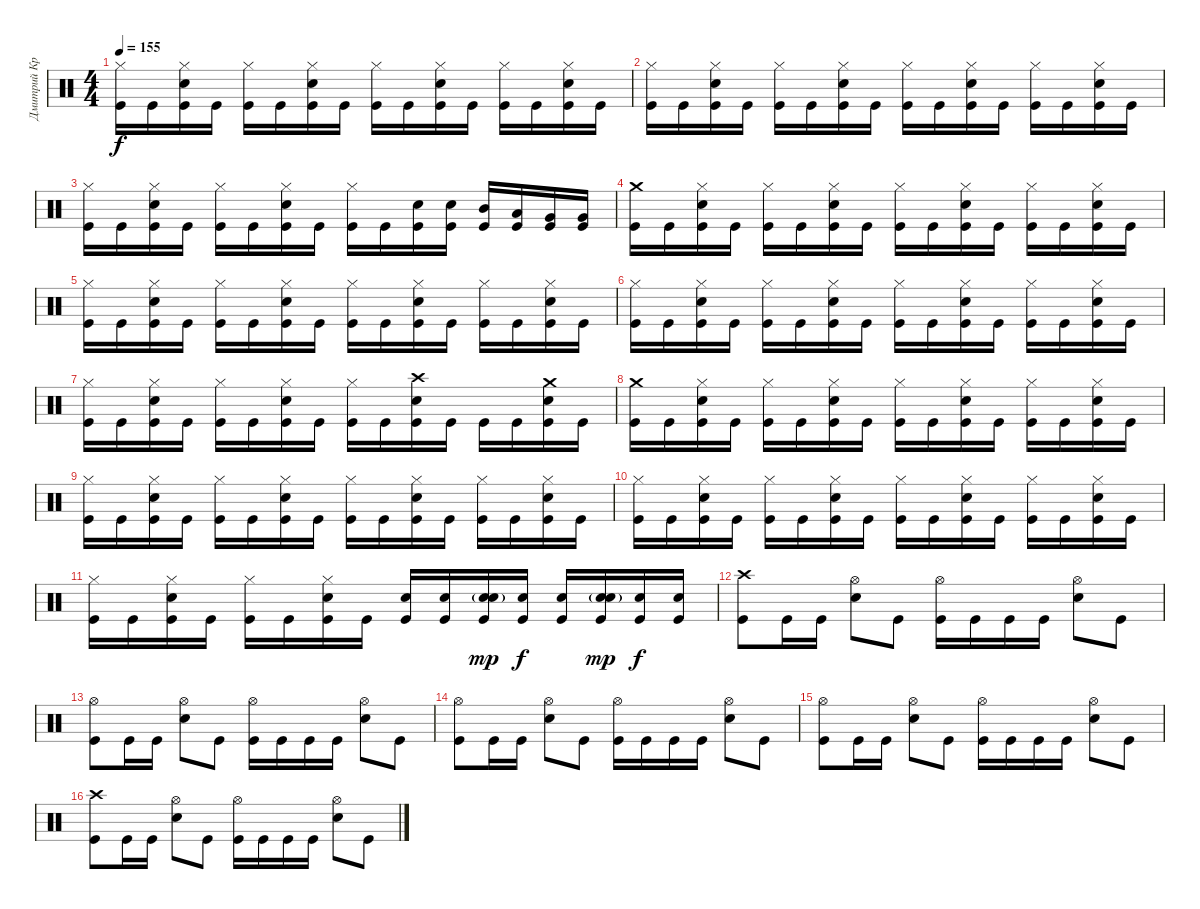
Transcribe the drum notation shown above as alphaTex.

\track ("Дмитрий Кривенков" "Дмитрий Кр") {instrument percussion}
\staff {score}
\articulation defaults
\ts (4 4)
\tempo 155
\clef neutral
\ks c
("Hi-Hat (closed)" "Kick (hit)").16{dy f} "Kick (hit)".16 ("Hi-Hat (closed)" "Snare (hit) 2" "Kick (hit)").16 "Kick (hit)".16 ("Hi-Hat (closed)" "Kick (hit)").16 "Kick (hit)".16 ("Hi-Hat (closed)" "Snare (hit) 2" "Kick (hit)").16 "Kick (hit)".16 ("Hi-Hat (closed)" "Kick (hit)").16 "Kick (hit)".16 ("Hi-Hat (closed)" "Snare (hit) 2" "Kick (hit)").16 "Kick (hit)".16 ("Hi-Hat (closed)" "Kick (hit)").16 "Kick (hit)".16 ("Hi-Hat (closed)" "Snare (hit) 2" "Kick (hit)").16 "Kick (hit)".16 |
("Hi-Hat (closed)" "Kick (hit)").16 "Kick (hit)".16 ("Hi-Hat (closed)" "Snare (hit) 2" "Kick (hit)").16 "Kick (hit)".16 ("Hi-Hat (closed)" "Kick (hit)").16 "Kick (hit)".16 ("Hi-Hat (closed)" "Snare (hit) 2" "Kick (hit)").16 "Kick (hit)".16 ("Hi-Hat (closed)" "Kick (hit)").16 "Kick (hit)".16 ("Hi-Hat (closed)" "Snare (hit) 2" "Kick (hit)").16 "Kick (hit)".16 ("Hi-Hat (closed)" "Kick (hit)").16 "Kick (hit)".16 ("Hi-Hat (closed)" "Snare (hit) 2" "Kick (hit)").16 "Kick (hit)".16 |
("Hi-Hat (closed)" "Kick (hit)").16 "Kick (hit)".16 ("Hi-Hat (closed)" "Snare (hit) 2" "Kick (hit)").16 "Kick (hit)".16 ("Hi-Hat (closed)" "Kick (hit)").16 "Kick (hit)".16 ("Hi-Hat (closed)" "Snare (hit) 2" "Kick (hit)").16 "Kick (hit)".16 ("Hi-Hat (closed)" "Kick (hit)").16 "Kick (hit)".16 ("Snare (hit) 2" "Kick (hit)").16 ("Snare (hit) 2" "Kick (hit)").16 ("Mid Tom (hit)" "Kick (hit)").16 ("Low Tom (hit)" "Kick (hit)").16 ("Very Low Tom (hit)" "Kick (hit)").16 ("Very Low Tom (hit)" "Kick (hit)").16 |
("Crash medium (hit)" "Kick (hit)").16 "Kick (hit)".16 ("Hi-Hat (closed)" "Snare (hit) 2" "Kick (hit)").16 "Kick (hit)".16 ("Hi-Hat (closed)" "Kick (hit)").16 "Kick (hit)".16 ("Hi-Hat (closed)" "Snare (hit) 2" "Kick (hit)").16 "Kick (hit)".16 ("Hi-Hat (closed)" "Kick (hit)").16 "Kick (hit)".16 ("Hi-Hat (closed)" "Snare (hit) 2" "Kick (hit)").16 "Kick (hit)".16 ("Hi-Hat (closed)" "Kick (hit)").16 "Kick (hit)".16 ("Hi-Hat (closed)" "Snare (hit) 2" "Kick (hit)").16 "Kick (hit)".16 |
("Hi-Hat (closed)" "Kick (hit)").16 "Kick (hit)".16 ("Hi-Hat (closed)" "Snare (hit) 2" "Kick (hit)").16 "Kick (hit)".16 ("Hi-Hat (closed)" "Kick (hit)").16 "Kick (hit)".16 ("Hi-Hat (closed)" "Snare (hit) 2" "Kick (hit)").16 "Kick (hit)".16 ("Hi-Hat (closed)" "Kick (hit)").16 "Kick (hit)".16 ("Hi-Hat (closed)" "Snare (hit) 2" "Kick (hit)").16 "Kick (hit)".16 ("Hi-Hat (closed)" "Kick (hit)").16 "Kick (hit)".16 ("Hi-Hat (closed)" "Snare (hit) 2" "Kick (hit)").16 "Kick (hit)".16 |
("Hi-Hat (closed)" "Kick (hit)").16 "Kick (hit)".16 ("Hi-Hat (closed)" "Snare (hit) 2" "Kick (hit)").16 "Kick (hit)".16 ("Hi-Hat (closed)" "Kick (hit)").16 "Kick (hit)".16 ("Hi-Hat (closed)" "Snare (hit) 2" "Kick (hit)").16 "Kick (hit)".16 ("Hi-Hat (closed)" "Kick (hit)").16 "Kick (hit)".16 ("Hi-Hat (closed)" "Snare (hit) 2" "Kick (hit)").16 "Kick (hit)".16 ("Hi-Hat (closed)" "Kick (hit)").16 "Kick (hit)".16 ("Hi-Hat (closed)" "Snare (hit) 2" "Kick (hit)").16 "Kick (hit)".16 |
("Hi-Hat (closed)" "Kick (hit)").16 "Kick (hit)".16 ("Hi-Hat (closed)" "Snare (hit) 2" "Kick (hit)").16 "Kick (hit)".16 ("Hi-Hat (closed)" "Kick (hit)").16 "Kick (hit)".16 ("Hi-Hat (closed)" "Snare (hit) 2" "Kick (hit)").16 "Kick (hit)".16 ("Hi-Hat (closed)" "Kick (hit)").16 "Kick (hit)".16 ("Crash high (hit)" "Snare (hit) 2" "Kick (hit)").16 "Kick (hit)".16 "Kick (hit)".16 "Kick (hit)".16 ("Crash medium (hit)" "Snare (hit) 2" "Kick (hit)").16 "Kick (hit)".16 |
("Crash medium (hit)" "Kick (hit)").16 "Kick (hit)".16 ("Snare (hit) 2" "Hi-Hat (closed)" "Kick (hit)").16 "Kick (hit)".16 ("Hi-Hat (closed)" "Kick (hit)").16 "Kick (hit)".16 ("Snare (hit) 2" "Hi-Hat (closed)" "Kick (hit)").16 "Kick (hit)".16 ("Hi-Hat (closed)" "Kick (hit)").16 "Kick (hit)".16 ("Snare (hit) 2" "Hi-Hat (closed)" "Kick (hit)").16 "Kick (hit)".16 ("Hi-Hat (closed)" "Kick (hit)").16 "Kick (hit)".16 ("Snare (hit) 2" "Hi-Hat (closed)" "Kick (hit)").16 "Kick (hit)".16 |
("Hi-Hat (closed)" "Kick (hit)").16 "Kick (hit)".16 ("Snare (hit) 2" "Hi-Hat (closed)" "Kick (hit)").16 "Kick (hit)".16 ("Hi-Hat (closed)" "Kick (hit)").16 "Kick (hit)".16 ("Snare (hit) 2" "Hi-Hat (closed)" "Kick (hit)").16 "Kick (hit)".16 ("Hi-Hat (closed)" "Kick (hit)").16 "Kick (hit)".16 ("Snare (hit) 2" "Hi-Hat (closed)" "Kick (hit)").16 "Kick (hit)".16 ("Hi-Hat (closed)" "Kick (hit)").16 "Kick (hit)".16 ("Snare (hit) 2" "Hi-Hat (closed)" "Kick (hit)").16 "Kick (hit)".16 |
("Hi-Hat (closed)" "Kick (hit)").16 "Kick (hit)".16 ("Hi-Hat (closed)" "Snare (hit) 2" "Kick (hit)").16 "Kick (hit)".16 ("Hi-Hat (closed)" "Kick (hit)").16 "Kick (hit)".16 ("Hi-Hat (closed)" "Snare (hit) 2" "Kick (hit)").16 "Kick (hit)".16 ("Hi-Hat (closed)" "Kick (hit)").16 "Kick (hit)".16 ("Hi-Hat (closed)" "Snare (hit) 2" "Kick (hit)").16 "Kick (hit)".16 ("Hi-Hat (closed)" "Kick (hit)").16 "Kick (hit)".16 ("Hi-Hat (closed)" "Snare (hit) 2" "Kick (hit)").16 "Kick (hit)".16 |
("Hi-Hat (closed)" "Kick (hit)").16 "Kick (hit)".16 ("Hi-Hat (closed)" "Snare (hit) 2" "Kick (hit)").16 "Kick (hit)".16 ("Hi-Hat (closed)" "Kick (hit)").16 "Kick (hit)".16 ("Hi-Hat (closed)" "Snare (hit) 2" "Kick (hit)").16 "Kick (hit)".16 ("Snare (hit) 2" "Kick (hit)").16 ("Snare (hit) 2" "Kick (hit)").16 ("Snare (hit) 2"{g} "Snare (hit) 2" "Kick (hit)").16{dy mp} ("Snare (hit) 2" "Kick (hit)").16{dy f} ("Snare (hit) 2" "Kick (hit)").16 ("Snare (hit) 2"{g} "Snare (hit) 2" "Kick (hit)").16{dy mp} ("Snare (hit) 2" "Kick (hit)").16{dy f} ("Snare (hit) 2" "Kick (hit)").16 |
("Crash high (hit)" "Kick (hit)").8 "Kick (hit)".16 "Kick (hit)".16 ("Hi-Hat (open)" "Snare (hit) 2").8 "Kick (hit)".8 ("Hi-Hat (open)" "Kick (hit)").16 "Kick (hit)".16 "Kick (hit)".16 "Kick (hit)".16 ("Hi-Hat (open)" "Snare (hit) 2").8 "Kick (hit)".8 |
("Hi-Hat (open)" "Kick (hit)").8 "Kick (hit)".16 "Kick (hit)".16 ("Hi-Hat (open)" "Snare (hit) 2").8 "Kick (hit)".8 ("Hi-Hat (open)" "Kick (hit)").16 "Kick (hit)".16 "Kick (hit)".16 "Kick (hit)".16 ("Hi-Hat (open)" "Snare (hit) 2").8 "Kick (hit)".8 |
("Hi-Hat (open)" "Kick (hit)").8 "Kick (hit)".16 "Kick (hit)".16 ("Hi-Hat (open)" "Snare (hit) 2").8 "Kick (hit)".8 ("Hi-Hat (open)" "Kick (hit)").16 "Kick (hit)".16 "Kick (hit)".16 "Kick (hit)".16 ("Hi-Hat (open)" "Snare (hit) 2").8 "Kick (hit)".8 |
("Hi-Hat (open)" "Kick (hit)").8 "Kick (hit)".16 "Kick (hit)".16 ("Hi-Hat (open)" "Snare (hit) 2").8 "Kick (hit)".8 ("Hi-Hat (open)" "Kick (hit)").16 "Kick (hit)".16 "Kick (hit)".16 "Kick (hit)".16 ("Hi-Hat (open)" "Snare (hit) 2").8 "Kick (hit)".8 |
("Crash high (hit)" "Kick (hit)").8 "Kick (hit)".16 "Kick (hit)".16 ("Hi-Hat (open)" "Snare (hit) 2").8 "Kick (hit)".8 ("Hi-Hat (open)" "Kick (hit)").16 "Kick (hit)".16 "Kick (hit)".16 "Kick (hit)".16 ("Hi-Hat (open)" "Snare (hit) 2").8 "Kick (hit)".8
